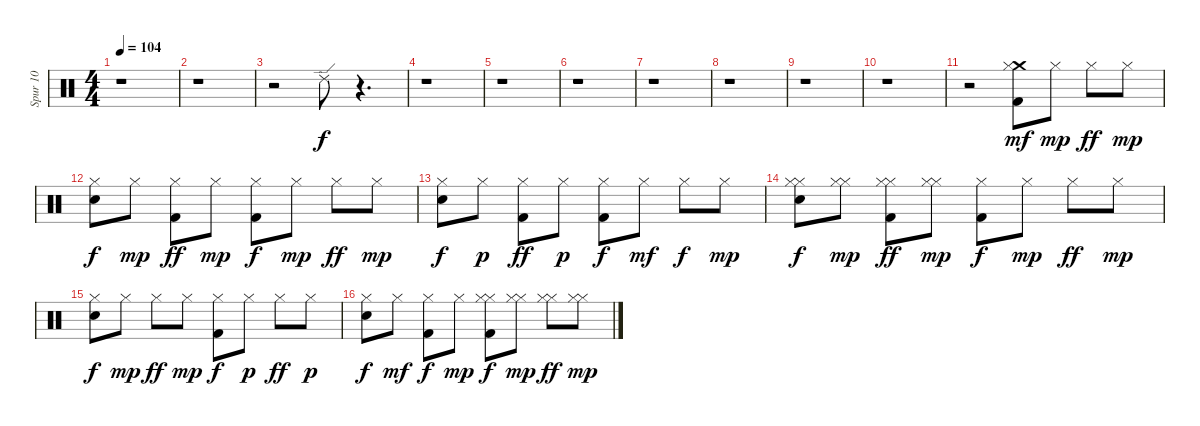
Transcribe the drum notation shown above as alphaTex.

\track ("Spur 10" "Spur 10") {instrument percussion}
\staff {score}
\articulation defaults
\ts (4 4)
\tempo 104
\clef neutral
\ks c
r.1{dy f} |
r.1 |
r.2 "Ride (edge) 2".8 r.4{d} |
r.1 |
r.1 |
r.1 |
r.1 |
r.1 |
r.1 |
r.1 |
r.2 ("Kick (hit) 2" "Crash medium (hit)" "Hi-Hat (closed)").8{dy mf} "Hi-Hat (closed)".8{dy mp} "Hi-Hat (closed)".8{dy ff} "Hi-Hat (closed)".8{dy mp} |
("Snare (hit) 2" "Hi-Hat (closed)").8{dy f} "Hi-Hat (closed)".8{dy mp} ("Kick (hit) 2" "Hi-Hat (closed)").8{dy ff} "Hi-Hat (closed)".8{dy mp} ("Kick (hit) 2" "Hi-Hat (closed)").8{dy f} "Hi-Hat (closed)".8{dy mp} "Hi-Hat (closed)".8{dy ff} "Hi-Hat (closed)".8{dy mp} |
("Snare (hit) 2" "Hi-Hat (closed)").8{dy f} "Hi-Hat (closed)".8{dy p} ("Kick (hit) 2" "Hi-Hat (closed)").8{dy ff} "Hi-Hat (closed)".8{dy p} ("Kick (hit) 2" "Hi-Hat (closed)").8{dy f} "Hi-Hat (closed)".8{dy mf} "Hi-Hat (closed)".8{dy f} "Hi-Hat (closed)".8{dy mp} |
("Snare (hit) 2" "Hi-Hat (closed)" "Hi-Hat (closed)").8{dy f} ("Hi-Hat (closed)" "Hi-Hat (closed)").8{dy mp} ("Kick (hit) 2" "Hi-Hat (closed)" "Hi-Hat (closed)").8{dy ff} ("Hi-Hat (closed)" "Hi-Hat (closed)").8{dy mp} ("Kick (hit) 2" "Hi-Hat (closed)").8{dy f} "Hi-Hat (closed)".8{dy mp} "Hi-Hat (closed)".8{dy ff} "Hi-Hat (closed)".8{dy mp} |
("Snare (hit) 2" "Hi-Hat (closed)").8{dy f} "Hi-Hat (closed)".8{dy mp} "Hi-Hat (closed)".8{dy ff} "Hi-Hat (closed)".8{dy mp} ("Kick (hit) 2" "Hi-Hat (closed)").8{dy f} "Hi-Hat (closed)".8{dy p} "Hi-Hat (closed)".8{dy ff} "Hi-Hat (closed)".8{dy p} |
("Snare (hit) 2" "Hi-Hat (closed)").8{dy f} "Hi-Hat (closed)".8{dy mf} ("Kick (hit) 2" "Hi-Hat (closed)").8{dy f} "Hi-Hat (closed)".8{dy mp} ("Kick (hit) 2" "Hi-Hat (closed)" "Hi-Hat (closed)").8{dy f} ("Hi-Hat (closed)" "Hi-Hat (closed)").8{dy mp} ("Hi-Hat (closed)" "Hi-Hat (closed)").8{dy ff} ("Hi-Hat (closed)" "Hi-Hat (closed)").8{dy mp}
